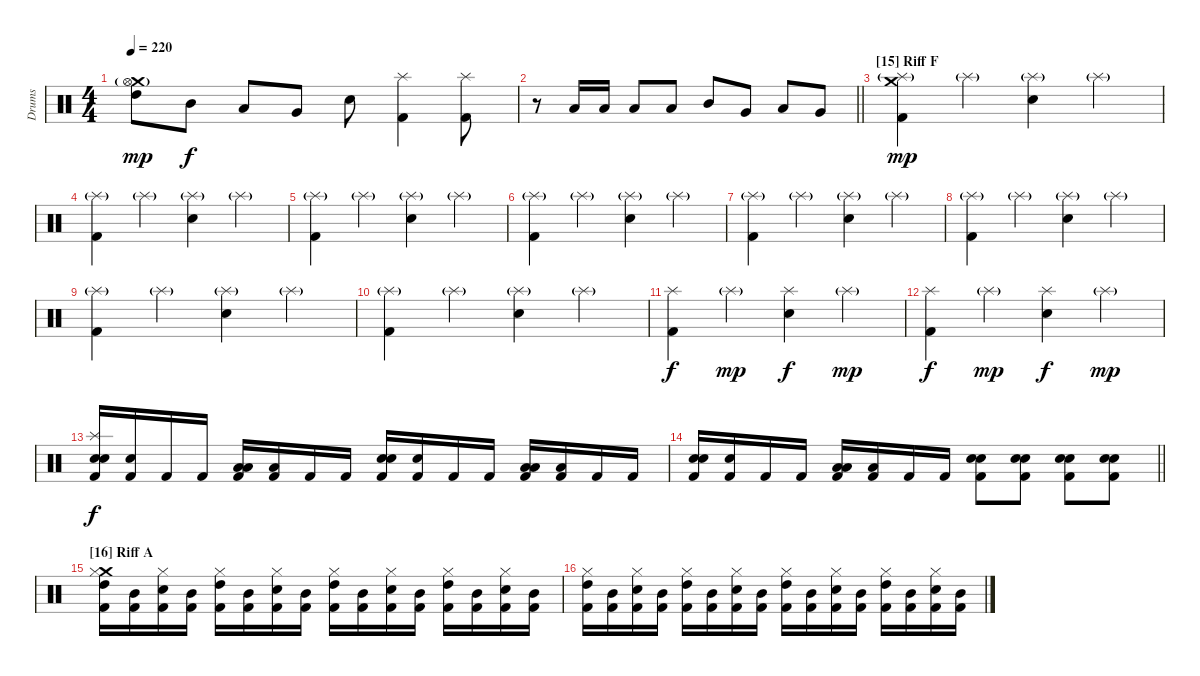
\track ("Drums" "Drums") {instrument percussion}
\staff {score}
\articulation defaults
\ts (4 4)
\tempo 220
\clef neutral
\ks c
("Crash medium (hit)" "Hi-Hat (open)"{g} "High Tom (hit)").8{dy mp} "Mid Tom (hit)".8{dy f} "Low Tom (hit)".8 "Very Low Tom (hit)".8 "Electric Snare (hit)".8 ("Splash (hit)" "Kick (hit) 2").4 ("Splash (hit)" "Kick (hit) 2").8 |
\barLineRight lightlight
r.8 "Low Tom (hit)".16 "Low Tom (hit)".16 "Low Tom (hit)".8 "Low Tom (hit)".8 "Mid Tom (hit)".8 "Very Low Tom (hit)".8 "Low Tom (hit)".8 "Very Low Tom (hit)".8 |
\section ("" "[15] Riff F")
("Crash medium (hit)" "Splash (hit)"{g} "Kick (hit) 2").4{dy mp} "Splash (hit)"{g}.4 ("Splash (hit)"{g} "Electric Snare (hit)").4 "Splash (hit)"{g}.4 |
("Splash (hit)"{g} "Kick (hit) 2").4 "Splash (hit)"{g}.4 ("Splash (hit)"{g} "Electric Snare (hit)").4 "Splash (hit)"{g}.4 |
("Splash (hit)"{g} "Kick (hit) 2").4 "Splash (hit)"{g}.4 ("Splash (hit)"{g} "Electric Snare (hit)").4 "Splash (hit)"{g}.4 |
("Splash (hit)"{g} "Kick (hit) 2").4 "Splash (hit)"{g}.4 ("Splash (hit)"{g} "Electric Snare (hit)").4 "Splash (hit)"{g}.4 |
("Splash (hit)"{g} "Kick (hit) 2").4 "Splash (hit)"{g}.4 ("Splash (hit)"{g} "Electric Snare (hit)").4 "Splash (hit)"{g}.4 |
("Splash (hit)"{g} "Kick (hit) 2").4 "Splash (hit)"{g}.4 ("Splash (hit)"{g} "Electric Snare (hit)").4 "Splash (hit)"{g}.4 |
("Splash (hit)"{g} "Kick (hit) 2").4 "Splash (hit)"{g}.4 ("Splash (hit)"{g} "Electric Snare (hit)").4 "Splash (hit)"{g}.4 |
("Splash (hit)"{g} "Kick (hit) 2").4 "Splash (hit)"{g}.4 ("Splash (hit)"{g} "Electric Snare (hit)").4 "Splash (hit)"{g}.4 |
("Splash (hit)" "Kick (hit) 2").4{dy f} "Splash (hit)"{g}.4{dy mp} ("Splash (hit)" "Electric Snare (hit)").4{dy f} "Splash (hit)"{g}.4{dy mp} |
("Splash (hit)" "Kick (hit) 2").4{dy f} "Splash (hit)"{g}.4{dy mp} ("Splash (hit)" "Electric Snare (hit)").4{dy f} "Splash (hit)"{g}.4{dy mp} |
("Splash (hit)" "Electric Snare (hit)" "Snare (hit) 2" "Kick (hit) 2").16{dy f} ("Snare (hit) 2" "Kick (hit) 2").16 "Kick (hit) 2".16 "Kick (hit) 2".16 ("Low Floor Tom (hit)" "Low Tom (hit)" "Kick (hit) 2").16 ("Low Tom (hit)" "Kick (hit) 2").16 "Kick (hit) 2".16 "Kick (hit) 2".16 ("Electric Snare (hit)" "Snare (hit) 2" "Kick (hit) 2").16 ("Snare (hit) 2" "Kick (hit) 2").16 "Kick (hit) 2".16 "Kick (hit) 2".16 ("Low Floor Tom (hit)" "Low Tom (hit)" "Kick (hit) 2").16 ("Low Tom (hit)" "Kick (hit) 2").16 "Kick (hit) 2".16 "Kick (hit) 2".16 |
\barLineRight lightlight
("Electric Snare (hit)" "Snare (hit) 2" "Kick (hit) 2").16 ("Snare (hit) 2" "Kick (hit) 2").16 "Kick (hit) 2".16 "Kick (hit) 2".16 ("Low Floor Tom (hit)" "Low Tom (hit)" "Kick (hit) 2").16 ("Low Tom (hit)" "Kick (hit) 2").16 "Kick (hit) 2".16 "Kick (hit) 2".16 ("Snare (hit) 2" "Electric Snare (hit)" "Kick (hit) 2").8 ("Snare (hit) 2" "Electric Snare (hit)" "Kick (hit) 2").8 ("Snare (hit) 2" "Electric Snare (hit)" "Kick (hit) 2").8 ("Snare (hit) 2" "Electric Snare (hit)" "Kick (hit) 2").8 |
\section ("" "[16] Riff A")
("Crash medium (hit)" "Hi-Hat (closed)" "High Tom (hit)" "Kick (hit) 2").16 ("Mid Tom (hit)" "Kick (hit) 2").16 ("Hi-Hat (closed)" "Electric Snare (hit)" "Kick (hit) 2").16 ("Mid Tom (hit)" "Kick (hit) 2").16 ("Hi-Hat (closed)" "High Tom (hit)" "Kick (hit) 2").16 ("Mid Tom (hit)" "Kick (hit) 2").16 ("Hi-Hat (closed)" "Electric Snare (hit)" "Kick (hit) 2").16 ("Mid Tom (hit)" "Kick (hit) 2").16 ("Hi-Hat (closed)" "High Tom (hit)" "Kick (hit) 2").16 ("Mid Tom (hit)" "Kick (hit) 2").16 ("Hi-Hat (closed)" "Electric Snare (hit)" "Kick (hit) 2").16 ("Mid Tom (hit)" "Kick (hit) 2").16 ("Hi-Hat (closed)" "High Tom (hit)" "Kick (hit) 2").16 ("Mid Tom (hit)" "Kick (hit) 2").16 ("Hi-Hat (closed)" "Electric Snare (hit)" "Kick (hit) 2").16 ("Mid Tom (hit)" "Kick (hit) 2").16 |
("Hi-Hat (closed)" "High Tom (hit)" "Kick (hit) 2").16 ("Mid Tom (hit)" "Kick (hit) 2").16 ("Hi-Hat (closed)" "Electric Snare (hit)" "Kick (hit) 2").16 ("Mid Tom (hit)" "Kick (hit) 2").16 ("Hi-Hat (closed)" "High Tom (hit)" "Kick (hit) 2").16 ("Mid Tom (hit)" "Kick (hit) 2").16 ("Hi-Hat (closed)" "Electric Snare (hit)" "Kick (hit) 2").16 ("Mid Tom (hit)" "Kick (hit) 2").16 ("Hi-Hat (closed)" "High Tom (hit)" "Kick (hit) 2").16 ("Mid Tom (hit)" "Kick (hit) 2").16 ("Hi-Hat (closed)" "Electric Snare (hit)" "Kick (hit) 2").16 ("Mid Tom (hit)" "Kick (hit) 2").16 ("Hi-Hat (closed)" "High Tom (hit)" "Kick (hit) 2").16 ("Mid Tom (hit)" "Kick (hit) 2").16 ("Hi-Hat (closed)" "Electric Snare (hit)" "Kick (hit) 2").16 ("Mid Tom (hit)" "Kick (hit) 2").16
